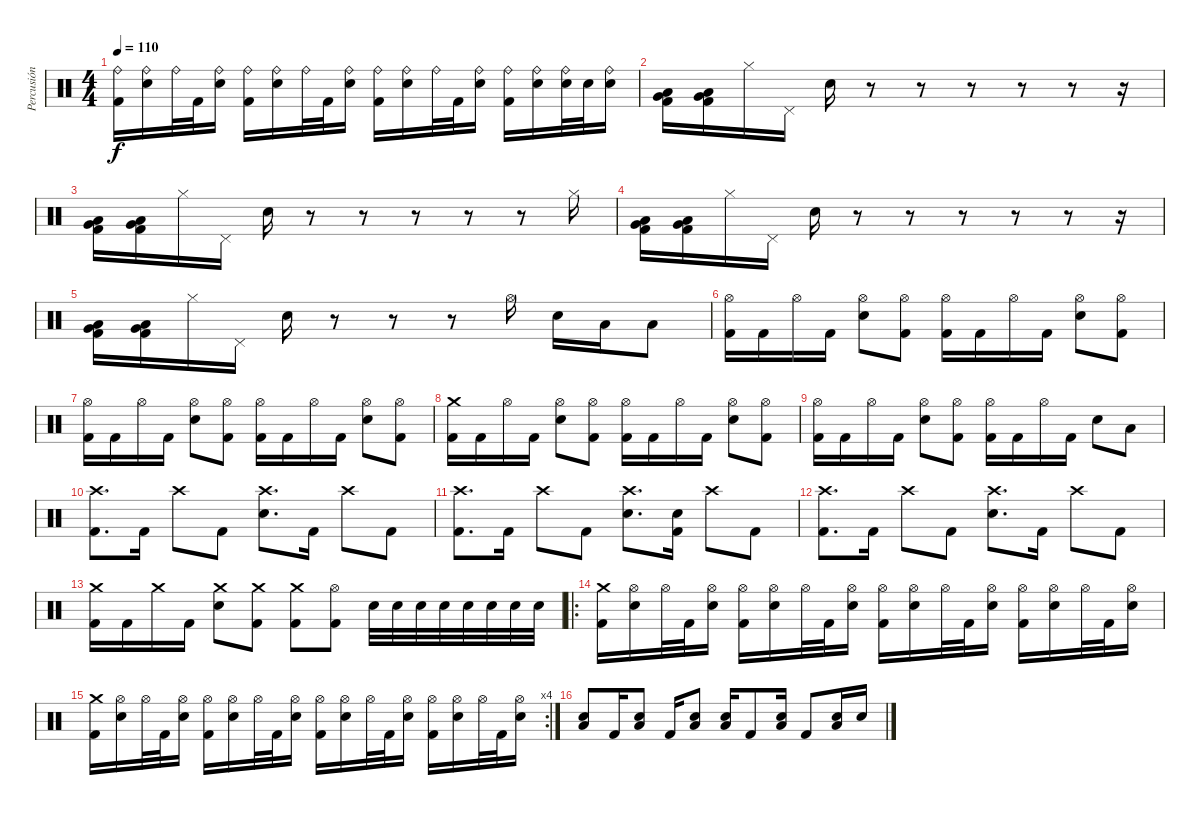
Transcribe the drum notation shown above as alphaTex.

\track ("Percusión" "Percusión") {instrument percussion}
\staff {score}
\articulation defaults
\ts (4 4)
\tempo 110
\clef neutral
\ks c
("Ride (bell)" "Kick (hit) 2").16{dy f} ("Ride (bell)" "Electric Snare (hit)").16 "Ride (bell)".32 "Kick (hit) 2".32 ("Ride (bell)" "Electric Snare (hit)").16 ("Ride (bell)" "Kick (hit) 2").16 ("Ride (bell)" "Electric Snare (hit)").16 "Ride (bell)".32 "Kick (hit) 2".32 ("Ride (bell)" "Electric Snare (hit)").16 ("Ride (bell)" "Kick (hit) 2").16 ("Ride (bell)" "Electric Snare (hit)").16 "Ride (bell)".32 "Kick (hit) 2".32 ("Ride (bell)" "Electric Snare (hit)").16 ("Ride (bell)" "Kick (hit) 2").16 ("Ride (bell)" "Electric Snare (hit)").16 ("Ride (bell)" "Electric Snare (hit)").32 "Electric Snare (hit)".32 ("Ride (bell)" "Electric Snare (hit)").16 |
("Low Tom (hit)" "Kick (hit) 2" "Very Low Tom (hit)").16 ("Low Tom (hit)" "Kick (hit) 2" "Very Low Tom (hit)").16 "Hi-Hat (closed)".16 "Pedal Hi-Hat (hit)".16 "Electric Snare (hit)".16 r.8 r.8 r.8 r.8 r.8 r.16 |
("Low Tom (hit)" "Kick (hit) 2" "Very Low Tom (hit)").16 ("Low Tom (hit)" "Kick (hit) 2" "Very Low Tom (hit)").16 "Hi-Hat (closed)".16 "Pedal Hi-Hat (hit)".16 "Electric Snare (hit)".16 r.8 r.8 r.8 r.8 r.8 "Hi-Hat (closed)".16 |
("Low Tom (hit)" "Kick (hit) 2" "Very Low Tom (hit)").16 ("Low Tom (hit)" "Kick (hit) 2" "Very Low Tom (hit)").16 "Hi-Hat (closed)".16 "Pedal Hi-Hat (hit)".16 "Electric Snare (hit)".16 r.8 r.8 r.8 r.8 r.8 r.16 |
("Low Tom (hit)" "Kick (hit) 2" "Very Low Tom (hit)").16 ("Low Tom (hit)" "Kick (hit) 2" "Very Low Tom (hit)").16 "Hi-Hat (closed)".16 "Pedal Hi-Hat (hit)".16 "Electric Snare (hit)".16 r.8 r.8 r.8 "Hi-Hat (open)".16 "Electric Snare (hit)".16 "Low Tom (hit)".16 "Low Tom (hit)".8 |
("Hi-Hat (open)" "Kick (hit) 2").16 "Kick (hit) 2".16 "Hi-Hat (open)".16 "Kick (hit) 2".16 ("Hi-Hat (open)" "Electric Snare (hit)").8 ("Hi-Hat (open)" "Kick (hit) 2").8 ("Hi-Hat (open)" "Kick (hit) 2").16 "Kick (hit) 2".16 "Hi-Hat (open)".16 "Kick (hit) 2".16 ("Hi-Hat (open)" "Electric Snare (hit)").8 ("Hi-Hat (open)" "Kick (hit) 2").8 |
("Hi-Hat (open)" "Kick (hit) 2").16 "Kick (hit) 2".16 "Hi-Hat (open)".16 "Kick (hit) 2".16 ("Hi-Hat (open)" "Electric Snare (hit)").8 ("Hi-Hat (open)" "Kick (hit) 2").8 ("Hi-Hat (open)" "Kick (hit) 2").16 "Kick (hit) 2".16 "Hi-Hat (open)".16 "Kick (hit) 2".16 ("Hi-Hat (open)" "Electric Snare (hit)").8 ("Hi-Hat (open)" "Kick (hit) 2").8 |
("Crash medium (hit)" "Kick (hit) 2").16 "Kick (hit) 2".16 "Hi-Hat (open)".16 "Kick (hit) 2".16 ("Hi-Hat (open)" "Electric Snare (hit)").8 ("Hi-Hat (open)" "Kick (hit) 2").8 ("Hi-Hat (open)" "Kick (hit) 2").16 "Kick (hit) 2".16 "Hi-Hat (open)".16 "Kick (hit) 2".16 ("Hi-Hat (open)" "Electric Snare (hit)").8 ("Hi-Hat (open)" "Kick (hit) 2").8 |
("Hi-Hat (open)" "Kick (hit) 2").16 "Kick (hit) 2".16 "Hi-Hat (open)".16 "Kick (hit) 2".16 ("Hi-Hat (open)" "Electric Snare (hit)").8 ("Hi-Hat (open)" "Kick (hit) 2").8 ("Hi-Hat (open)" "Kick (hit) 2").16 "Kick (hit) 2".16 "Hi-Hat (open)".16 "Kick (hit) 2".16 "Electric Snare (hit)".8 "Low Tom (hit)".8 |
("Crash high (hit)" "Kick (hit) 2").8{d} "Kick (hit) 2".16 "Crash high (hit)".8 "Kick (hit) 2".8 ("Crash high (hit)" "Electric Snare (hit)").8{d} "Kick (hit) 2".16 "Crash high (hit)".8 "Kick (hit) 2".8 |
("Crash high (hit)" "Kick (hit) 2").8{d} "Kick (hit) 2".16 "Crash high (hit)".8 "Kick (hit) 2".8 ("Crash high (hit)" "Electric Snare (hit)").8{d} ("Electric Snare (hit)" "Kick (hit) 2").16 "Crash high (hit)".8 "Kick (hit) 2".8 |
("Crash high (hit)" "Kick (hit) 2").8{d} "Kick (hit) 2".16 "Crash high (hit)".8 "Kick (hit) 2".8 ("Crash high (hit)" "Electric Snare (hit)").8{d} "Kick (hit) 2".16 "Crash high (hit)".8 "Kick (hit) 2".8 |
("Crash medium (hit)" "Kick (hit) 2").16 "Kick (hit) 2".16 "Crash medium (hit)".16 "Kick (hit) 2".16 ("Crash medium (hit)" "Electric Snare (hit)").8 ("Crash medium (hit)" "Kick (hit) 2").8 ("Crash medium (hit)" "Kick (hit) 2").8 ("Hi-Hat (open)" "Kick (hit) 2").8 "Electric Snare (hit)".32 "Electric Snare (hit)".32 "Electric Snare (hit)".32 "Electric Snare (hit)".32 "Electric Snare (hit)".32 "Electric Snare (hit)".32 "Electric Snare (hit)".32 "Electric Snare (hit)".32 |
\ro
("Crash medium (hit)" "Kick (hit) 2").16 ("Hi-Hat (open)" "Electric Snare (hit)").16 "Hi-Hat (open)".32 "Kick (hit) 2".32 ("Hi-Hat (open)" "Electric Snare (hit)").16 ("Hi-Hat (open)" "Kick (hit) 2").16 ("Hi-Hat (open)" "Electric Snare (hit)").16 "Hi-Hat (open)".32 "Kick (hit) 2".32 ("Hi-Hat (open)" "Electric Snare (hit)").16 ("Hi-Hat (open)" "Kick (hit) 2").16 ("Hi-Hat (open)" "Electric Snare (hit)").16 "Hi-Hat (open)".32 "Kick (hit) 2".32 ("Hi-Hat (open)" "Electric Snare (hit)").16 ("Hi-Hat (open)" "Kick (hit) 2").16 ("Hi-Hat (open)" "Electric Snare (hit)").16 "Hi-Hat (open)".32 "Kick (hit) 2".32 ("Hi-Hat (open)" "Electric Snare (hit)").16 |
\rc 4
("Crash medium (hit)" "Kick (hit) 2").16 ("Hi-Hat (open)" "Electric Snare (hit)").16 "Hi-Hat (open)".32 "Kick (hit) 2".32 ("Hi-Hat (open)" "Electric Snare (hit)").16 ("Hi-Hat (open)" "Kick (hit) 2").16 ("Hi-Hat (open)" "Electric Snare (hit)").16 "Hi-Hat (open)".32 "Kick (hit) 2".32 ("Hi-Hat (open)" "Electric Snare (hit)").16 ("Hi-Hat (open)" "Kick (hit) 2").16 ("Hi-Hat (open)" "Electric Snare (hit)").16 "Hi-Hat (open)".32 "Kick (hit) 2".32 ("Hi-Hat (open)" "Electric Snare (hit)").16 ("Hi-Hat (open)" "Kick (hit) 2").16 ("Hi-Hat (open)" "Electric Snare (hit)").16 "Hi-Hat (open)".32 "Kick (hit) 2".32 ("Hi-Hat (open)" "Electric Snare (hit)").16 |
("Low Floor Tom (hit)" "Electric Snare (hit)").8 "Kick (hit) 2".16 ("Low Floor Tom (hit)" "Electric Snare (hit)").8 "Kick (hit) 2".16 ("Low Floor Tom (hit)" "Electric Snare (hit)").8 ("Low Floor Tom (hit)" "Electric Snare (hit)").16 "Kick (hit) 2".8 ("Low Floor Tom (hit)" "Electric Snare (hit)").16 "Kick (hit) 2".8 ("Low Floor Tom (hit)" "Electric Snare (hit)").16 "Electric Snare (hit)".16
